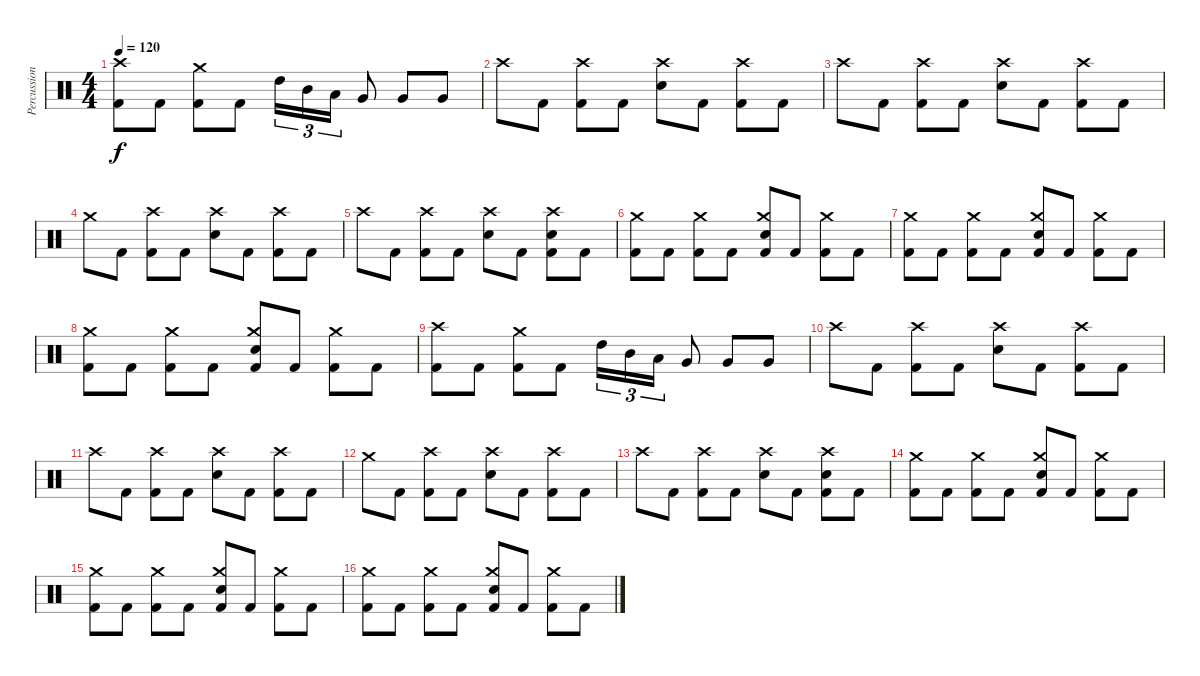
\track ("Percussion" "Percussion") {instrument percussion}
\staff {score}
\articulation defaults
\ts (4 4)
\tempo 120
\clef neutral
\ks c
("Crash high (hit)" "Kick (hit) 2").8{dy f} "Kick (hit) 2".8 ("Crash medium (hit)" "Kick (hit) 2").8 "Kick (hit) 2".8 "High Tom (hit)".16{tu (3 2)} "Mid Tom (hit)".16{tu (3 2)} "Low Tom (hit)".16{tu (3 2)} "Very Low Tom (hit)".8 "Very Low Tom (hit)".8 "Very Low Tom (hit)".8 |
"Crash high (hit)".8 "Kick (hit) 2".8 ("Crash high (hit)" "Kick (hit) 2").8 "Kick (hit) 2".8 ("Crash high (hit)" "Snare (hit) 2").8 "Kick (hit) 2".8 ("Crash high (hit)" "Kick (hit) 2").8 "Kick (hit) 2".8 |
"Crash high (hit)".8 "Kick (hit) 2".8 ("Crash high (hit)" "Kick (hit) 2").8 "Kick (hit) 2".8 ("Crash high (hit)" "Snare (hit) 2").8 "Kick (hit) 2".8 ("Crash high (hit)" "Kick (hit) 2").8 "Kick (hit) 2".8 |
"Crash medium (hit)".8 "Kick (hit) 2".8 ("Crash high (hit)" "Kick (hit) 2").8 "Kick (hit) 2".8 ("Crash high (hit)" "Snare (hit) 2").8 "Kick (hit) 2".8 ("Crash high (hit)" "Kick (hit) 2").8 "Kick (hit) 2".8 |
"Crash high (hit)".8 "Kick (hit) 2".8 ("Crash high (hit)" "Kick (hit) 2").8 "Kick (hit) 2".8 ("Crash high (hit)" "Snare (hit) 2").8 "Kick (hit) 2".8 ("Crash high (hit)" "Snare (hit) 2" "Kick (hit) 2").8 "Kick (hit) 2".8 |
("Crash medium (hit)" "Kick (hit) 2").8{volume 7} "Kick (hit) 2".8 ("Crash medium (hit)" "Kick (hit) 2").8 "Kick (hit) 2".8 ("Crash medium (hit)" "Snare (hit) 2" "Kick (hit) 2").8 "Kick (hit) 2".8 ("Crash medium (hit)" "Kick (hit) 2").8 "Kick (hit) 2".8 |
("Crash medium (hit)" "Kick (hit) 2").8 "Kick (hit) 2".8 ("Crash medium (hit)" "Kick (hit) 2").8 "Kick (hit) 2".8 ("Crash medium (hit)" "Snare (hit) 2" "Kick (hit) 2").8 "Kick (hit) 2".8 ("Crash medium (hit)" "Kick (hit) 2").8 "Kick (hit) 2".8 |
("Crash medium (hit)" "Kick (hit) 2").8 "Kick (hit) 2".8 ("Crash medium (hit)" "Kick (hit) 2").8 "Kick (hit) 2".8 ("Crash medium (hit)" "Snare (hit) 2" "Kick (hit) 2").8 "Kick (hit) 2".8 ("Crash medium (hit)" "Kick (hit) 2").8 "Kick (hit) 2".8 |
("Crash high (hit)" "Kick (hit) 2").8 "Kick (hit) 2".8 ("Crash medium (hit)" "Kick (hit) 2").8 "Kick (hit) 2".8 "High Tom (hit)".16{tu (3 2)} "Mid Tom (hit)".16{tu (3 2)} "Low Tom (hit)".16{tu (3 2)} "Very Low Tom (hit)".8 "Very Low Tom (hit)".8 "Very Low Tom (hit)".8 |
"Crash high (hit)".8 "Kick (hit) 2".8 ("Crash high (hit)" "Kick (hit) 2").8 "Kick (hit) 2".8 ("Crash high (hit)" "Snare (hit) 2").8 "Kick (hit) 2".8 ("Crash high (hit)" "Kick (hit) 2").8 "Kick (hit) 2".8 |
"Crash high (hit)".8 "Kick (hit) 2".8 ("Crash high (hit)" "Kick (hit) 2").8 "Kick (hit) 2".8 ("Crash high (hit)" "Snare (hit) 2").8 "Kick (hit) 2".8 ("Crash high (hit)" "Kick (hit) 2").8 "Kick (hit) 2".8 |
"Crash medium (hit)".8 "Kick (hit) 2".8 ("Crash high (hit)" "Kick (hit) 2").8 "Kick (hit) 2".8 ("Crash high (hit)" "Snare (hit) 2").8 "Kick (hit) 2".8 ("Crash high (hit)" "Kick (hit) 2").8 "Kick (hit) 2".8 |
"Crash high (hit)".8 "Kick (hit) 2".8 ("Crash high (hit)" "Kick (hit) 2").8 "Kick (hit) 2".8 ("Crash high (hit)" "Snare (hit) 2").8 "Kick (hit) 2".8 ("Crash high (hit)" "Snare (hit) 2" "Kick (hit) 2").8 "Kick (hit) 2".8 |
("Crash medium (hit)" "Kick (hit) 2").8{volume 2} "Kick (hit) 2".8 ("Crash medium (hit)" "Kick (hit) 2").8 "Kick (hit) 2".8 ("Crash medium (hit)" "Snare (hit) 2" "Kick (hit) 2").8 "Kick (hit) 2".8 ("Crash medium (hit)" "Kick (hit) 2").8 "Kick (hit) 2".8 |
("Crash medium (hit)" "Kick (hit) 2").8 "Kick (hit) 2".8 ("Crash medium (hit)" "Kick (hit) 2").8 "Kick (hit) 2".8 ("Crash medium (hit)" "Snare (hit) 2" "Kick (hit) 2").8 "Kick (hit) 2".8 ("Crash medium (hit)" "Kick (hit) 2").8 "Kick (hit) 2".8 |
("Crash medium (hit)" "Kick (hit) 2").8 "Kick (hit) 2".8 ("Crash medium (hit)" "Kick (hit) 2").8 "Kick (hit) 2".8 ("Crash medium (hit)" "Snare (hit) 2" "Kick (hit) 2").8 "Kick (hit) 2".8 ("Crash medium (hit)" "Kick (hit) 2").8 "Kick (hit) 2".8
